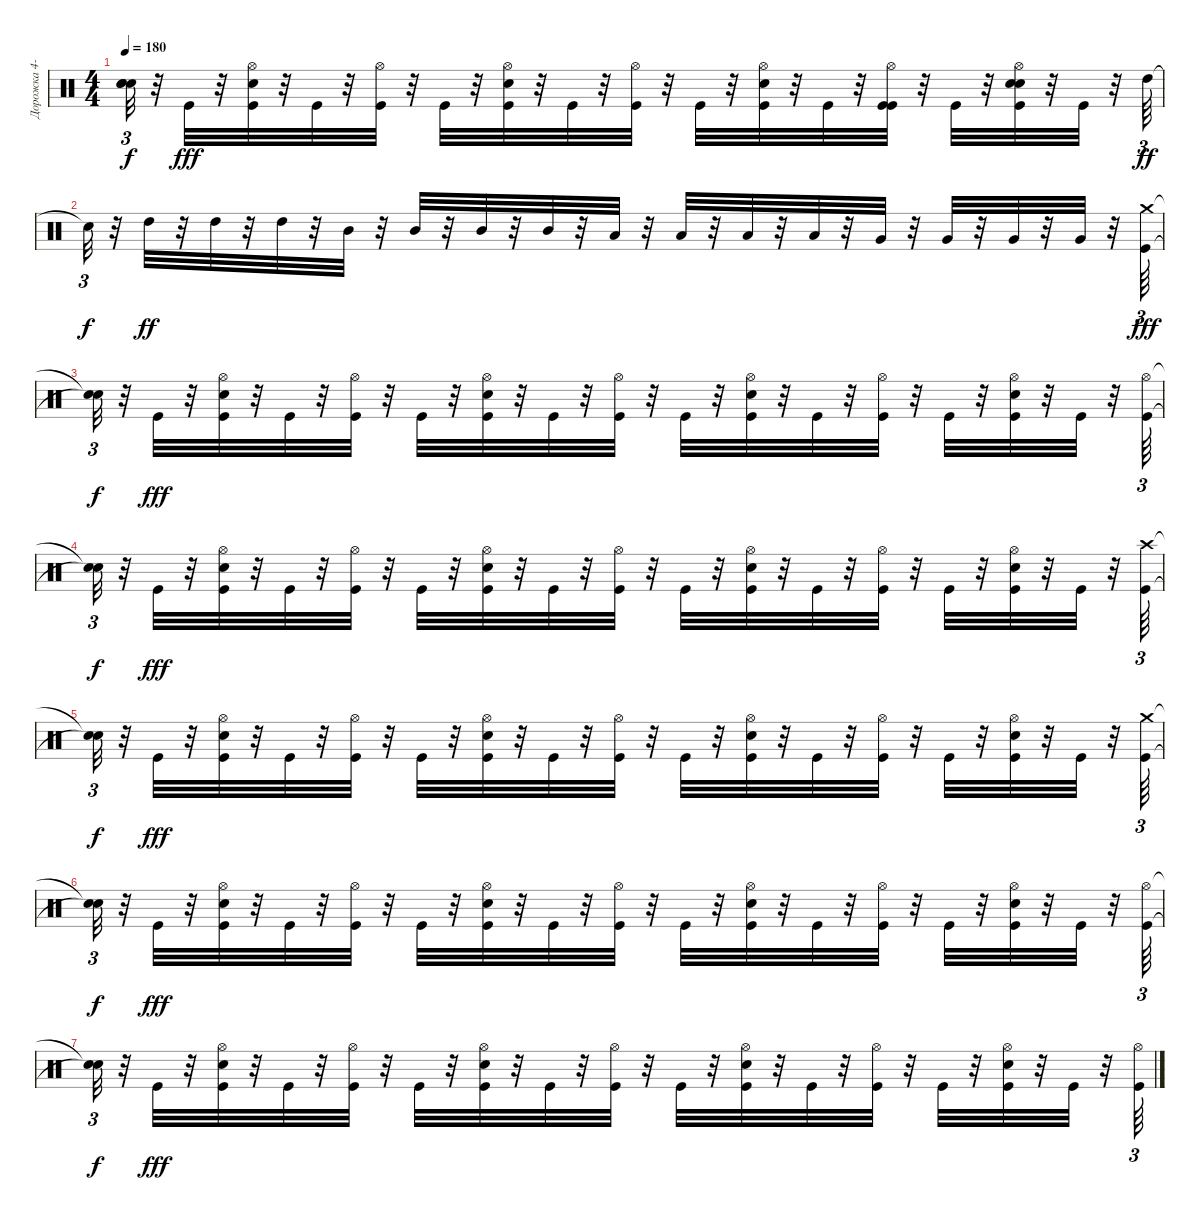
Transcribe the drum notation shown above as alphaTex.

\track ("Дорожка 4-10-11" "Дорожка 4-") {instrument percussion}
\staff {score}
\articulation defaults
\ts (4 4)
\tempo 180
\clef neutral
\ks c
("Snare (hit)"{t} "Snare (hit)"{t} "Snare (hit)"{t}).32{tu (3 2) dy f} r.32 "Kick (hit)".32{dy fff} r.32 ("Hi-Hat (open)" "Snare (hit) 2" "Kick (hit)").32 r.32 "Kick (hit)".32 r.32 ("Hi-Hat (open)" "Kick (hit)").32 r.32 "Kick (hit)".32 r.32 ("Snare (hit) 2" "Hi-Hat (open)" "Kick (hit)").32 r.32 "Kick (hit)".32 r.32 ("Hi-Hat (open)" "Kick (hit)").32 r.32 "Kick (hit)".32 r.32 ("Hi-Hat (open)" "Snare (hit) 2" "Kick (hit)").32 r.32 "Kick (hit)".32 r.32 ("Hi-Hat (open)" "Kick (hit)" "Kick (hit)").32 r.32 "Kick (hit)".32 r.32 ("Snare (hit) 2" "Hi-Hat (open)" "Snare (hit) 2" "Kick (hit)").32 r.32 "Kick (hit)".32 r.32 "High Tom (hit)".64{tu (3 2) dy ff} |
"Snare (hit)"{t}.32{tu (3 2) dy f} r.32 "High Tom (hit)".32{dy ff} r.32 "High Tom (hit)".32 r.32 "High Tom (hit)".32 r.32 "Mid Tom (hit)".32 r.32 "Mid Tom (hit)".32 r.32 "Mid Tom (hit)".32 r.32 "Mid Tom (hit)".32 r.32 "Low Tom (hit)".32 r.32 "Low Tom (hit)".32 r.32 "Low Tom (hit)".32 r.32 "Low Tom (hit)".32 r.32 "Very Low Tom (hit)".32 r.32 "Very Low Tom (hit)".32 r.32 "Very Low Tom (hit)".32 r.32 "Very Low Tom (hit)".32 r.32 ("Crash medium (hit)" "Kick (hit)").64{tu (3 2) dy fff} |
("Snare (hit)"{t} "Snare (hit)"{t}).32{tu (3 2) dy f} r.32 "Kick (hit)".32{dy fff} r.32 ("Hi-Hat (open)" "Snare (hit) 2" "Kick (hit)").32 r.32 "Kick (hit)".32 r.32 ("Hi-Hat (open)" "Kick (hit)").32 r.32 "Kick (hit)".32 r.32 ("Snare (hit) 2" "Hi-Hat (open)" "Kick (hit)").32 r.32 "Kick (hit)".32 r.32 ("Hi-Hat (open)" "Kick (hit)").32 r.32 "Kick (hit)".32 r.32 ("Hi-Hat (open)" "Snare (hit) 2" "Kick (hit)").32 r.32 "Kick (hit)".32 r.32 ("Hi-Hat (open)" "Kick (hit)").32 r.32 "Kick (hit)".32 r.32 ("Hi-Hat (open)" "Snare (hit) 2" "Kick (hit)").32 r.32 "Kick (hit)".32 r.32 ("Hi-Hat (open)" "Kick (hit)").64{tu (3 2)} |
("Snare (hit)"{t} "Snare (hit)"{t}).32{tu (3 2) dy f} r.32 "Kick (hit)".32{dy fff} r.32 ("Hi-Hat (open)" "Snare (hit) 2" "Kick (hit)").32 r.32 "Kick (hit)".32 r.32 ("Hi-Hat (open)" "Kick (hit)").32 r.32 "Kick (hit)".32 r.32 ("Snare (hit) 2" "Hi-Hat (open)" "Kick (hit)").32 r.32 "Kick (hit)".32 r.32 ("Hi-Hat (open)" "Kick (hit)").32 r.32 "Kick (hit)".32 r.32 ("Hi-Hat (open)" "Snare (hit) 2" "Kick (hit)").32 r.32 "Kick (hit)".32 r.32 ("Hi-Hat (open)" "Kick (hit)").32 r.32 "Kick (hit)".32 r.32 ("Hi-Hat (open)" "Snare (hit) 2" "Kick (hit)").32 r.32 "Kick (hit)".32 r.32 ("Crash high (hit)" "Kick (hit)").64{tu (3 2)} |
("Snare (hit)"{t} "Snare (hit)"{t}).32{tu (3 2) dy f} r.32 "Kick (hit)".32{dy fff} r.32 ("Hi-Hat (open)" "Snare (hit) 2" "Kick (hit)").32 r.32 "Kick (hit)".32 r.32 ("Hi-Hat (open)" "Kick (hit)").32 r.32 "Kick (hit)".32 r.32 ("Snare (hit) 2" "Hi-Hat (open)" "Kick (hit)").32 r.32 "Kick (hit)".32 r.32 ("Hi-Hat (open)" "Kick (hit)").32 r.32 "Kick (hit)".32 r.32 ("Hi-Hat (open)" "Snare (hit) 2" "Kick (hit)").32 r.32 "Kick (hit)".32 r.32 ("Hi-Hat (open)" "Kick (hit)").32 r.32 "Kick (hit)".32 r.32 ("Hi-Hat (open)" "Snare (hit) 2" "Kick (hit)").32 r.32 "Kick (hit)".32 r.32 ("Crash medium (hit)" "Kick (hit)").64{tu (3 2)} |
("Snare (hit)"{t} "Snare (hit)"{t}).32{tu (3 2) dy f} r.32 "Kick (hit)".32{dy fff} r.32 ("Hi-Hat (open)" "Snare (hit) 2" "Kick (hit)").32 r.32 "Kick (hit)".32 r.32 ("Hi-Hat (open)" "Kick (hit)").32 r.32 "Kick (hit)".32 r.32 ("Snare (hit) 2" "Hi-Hat (open)" "Kick (hit)").32 r.32 "Kick (hit)".32 r.32 ("Hi-Hat (open)" "Kick (hit)").32 r.32 "Kick (hit)".32 r.32 ("Hi-Hat (open)" "Snare (hit) 2" "Kick (hit)").32 r.32 "Kick (hit)".32 r.32 ("Hi-Hat (open)" "Kick (hit)").32 r.32 "Kick (hit)".32 r.32 ("Hi-Hat (open)" "Snare (hit) 2" "Kick (hit)").32 r.32 "Kick (hit)".32 r.32 ("Hi-Hat (open)" "Kick (hit)").64{tu (3 2)} |
("Snare (hit)"{t} "Snare (hit)"{t}).32{tu (3 2) dy f} r.32 "Kick (hit)".32{dy fff} r.32 ("Hi-Hat (open)" "Snare (hit) 2" "Kick (hit)").32 r.32 "Kick (hit)".32 r.32 ("Hi-Hat (open)" "Kick (hit)").32 r.32 "Kick (hit)".32 r.32 ("Snare (hit) 2" "Hi-Hat (open)" "Kick (hit)").32 r.32 "Kick (hit)".32 r.32 ("Hi-Hat (open)" "Kick (hit)").32 r.32 "Kick (hit)".32 r.32 ("Hi-Hat (open)" "Snare (hit) 2" "Kick (hit)").32 r.32 "Kick (hit)".32 r.32 ("Hi-Hat (open)" "Kick (hit)").32 r.32 "Kick (hit)".32 r.32 ("Hi-Hat (open)" "Snare (hit) 2" "Kick (hit)").32 r.32 "Kick (hit)".32 r.32 ("Hi-Hat (open)" "Kick (hit)").64{tu (3 2)}
